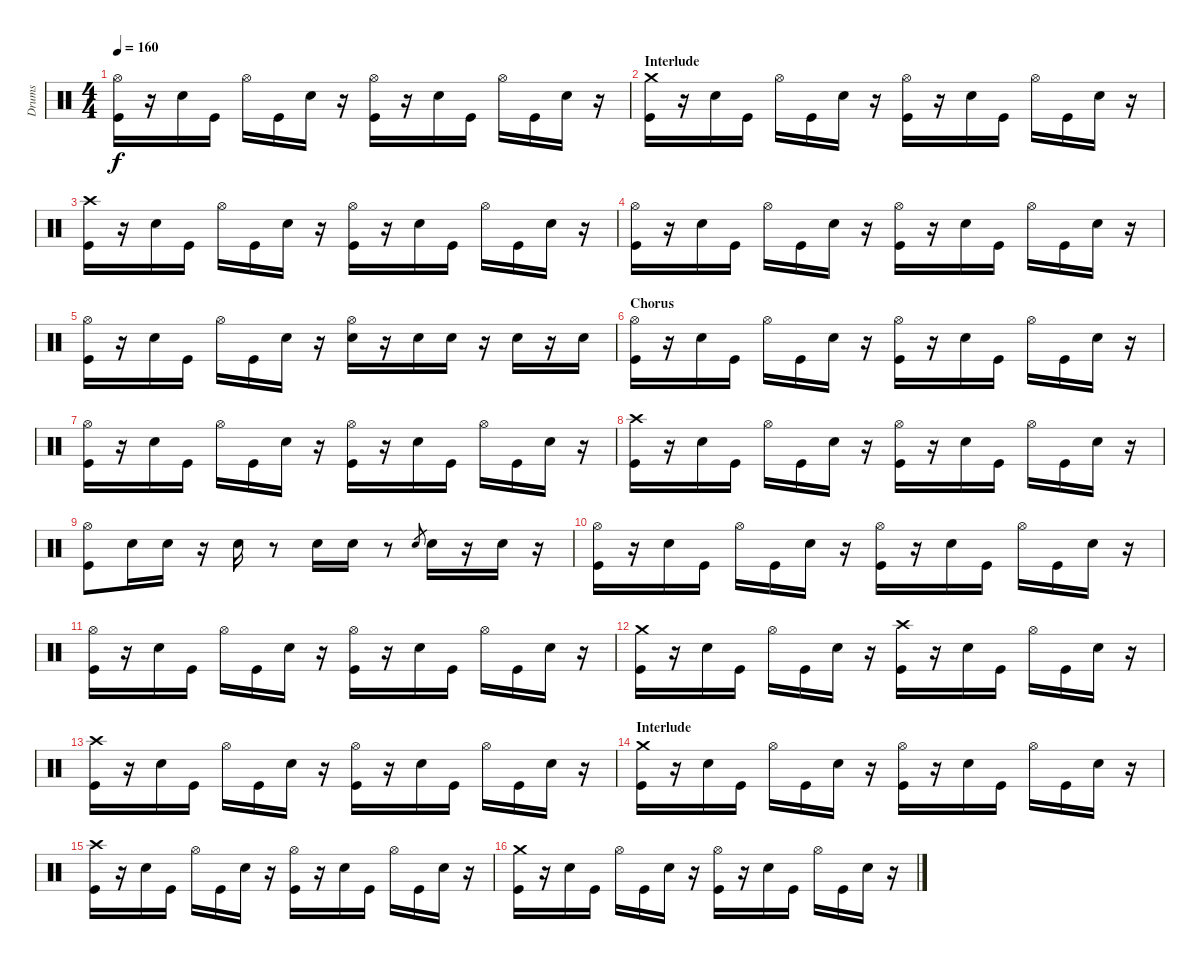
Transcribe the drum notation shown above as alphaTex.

\track ("Drums" "Drums") {instrument percussion}
\staff {score}
\articulation defaults
\ts (4 4)
\tempo 160
\clef neutral
\ks c
("Kick (hit)" "Hi-Hat (open)").16{dy f} r.16 "Snare (hit) 2".16 "Kick (hit)".16 "Hi-Hat (open)".16 "Kick (hit)".16 "Snare (hit) 2".16 r.16 ("Kick (hit)" "Hi-Hat (open)").16 r.16 "Snare (hit) 2".16 "Kick (hit)".16 "Hi-Hat (open)".16 "Kick (hit)".16 "Snare (hit) 2".16 r.16 |
\section ("" "Interlude")
("Kick (hit)" "Crash medium (hit)").16 r.16 "Snare (hit) 2".16 "Kick (hit)".16 "Hi-Hat (open)".16 "Kick (hit)".16 "Snare (hit) 2".16 r.16 ("Kick (hit)" "Hi-Hat (open)").16 r.16 "Snare (hit) 2".16 "Kick (hit)".16 "Hi-Hat (open)".16 "Kick (hit)".16 "Snare (hit) 2".16 r.16 |
("Kick (hit)" "Crash high (hit)").16 r.16 "Snare (hit) 2".16 "Kick (hit)".16 "Hi-Hat (open)".16 "Kick (hit)".16 "Snare (hit) 2".16 r.16 ("Kick (hit)" "Hi-Hat (open)").16 r.16 "Snare (hit) 2".16 "Kick (hit)".16 "Hi-Hat (open)".16 "Kick (hit)".16 "Snare (hit) 2".16 r.16 |
("Kick (hit)" "Hi-Hat (open)").16 r.16 "Snare (hit) 2".16 "Kick (hit)".16 "Hi-Hat (open)".16 "Kick (hit)".16 "Snare (hit) 2".16 r.16 ("Kick (hit)" "Hi-Hat (open)").16 r.16 "Snare (hit) 2".16 "Kick (hit)".16 "Hi-Hat (open)".16 "Kick (hit)".16 "Snare (hit) 2".16 r.16 |
("Kick (hit)" "Hi-Hat (open)").16 r.16 "Snare (hit) 2".16 "Kick (hit)".16 "Hi-Hat (open)".16 "Kick (hit)".16 "Snare (hit) 2".16 r.16 ("Snare (hit) 2" "Hi-Hat (open)").16 r.16 "Snare (hit) 2".16 "Snare (hit) 2".16 r.16 "Snare (hit) 2".16 r.16 "Snare (hit) 2".16 |
\section ("" "Chorus")
("Kick (hit)" "Hi-Hat (open)").16 r.16 "Snare (hit) 2".16 "Kick (hit)".16 "Hi-Hat (open)".16 "Kick (hit)".16 "Snare (hit) 2".16 r.16 ("Kick (hit)" "Hi-Hat (open)").16 r.16 "Snare (hit) 2".16 "Kick (hit)".16 "Hi-Hat (open)".16 "Kick (hit)".16 "Snare (hit) 2".16 r.16 |
("Kick (hit)" "Hi-Hat (open)").16 r.16 "Snare (hit) 2".16 "Kick (hit)".16 "Hi-Hat (open)".16 "Kick (hit)".16 "Snare (hit) 2".16 r.16 ("Kick (hit)" "Hi-Hat (open)").16 r.16 "Snare (hit) 2".16 "Kick (hit)".16 "Hi-Hat (open)".16 "Kick (hit)".16 "Snare (hit) 2".16 r.16 |
("Kick (hit)" "Crash high (hit)").16 r.16 "Snare (hit) 2".16 "Kick (hit)".16 "Hi-Hat (open)".16 "Kick (hit)".16 "Snare (hit) 2".16 r.16 ("Kick (hit)" "Hi-Hat (open)").16 r.16 "Snare (hit) 2".16 "Kick (hit)".16 "Hi-Hat (open)".16 "Kick (hit)".16 "Snare (hit) 2".16 r.16 |
("Kick (hit)" "Hi-Hat (open)").8 "Snare (hit) 2".16 "Snare (hit) 2".16 r.16 "Snare (hit) 2".16 r.8 "Snare (hit) 2".16 "Snare (hit) 2".16 r.8 "Snare (hit) 2".8{gr} "Snare (hit) 2".16 r.16 "Snare (hit) 2".16 r.16 |
("Kick (hit)" "Hi-Hat (open)").16 r.16 "Snare (hit) 2".16 "Kick (hit)".16 "Hi-Hat (open)".16 "Kick (hit)".16 "Snare (hit) 2".16 r.16 ("Kick (hit)" "Hi-Hat (open)").16 r.16 "Snare (hit) 2".16 "Kick (hit)".16 "Hi-Hat (open)".16 "Kick (hit)".16 "Snare (hit) 2".16 r.16 |
("Kick (hit)" "Hi-Hat (open)").16 r.16 "Snare (hit) 2".16 "Kick (hit)".16 "Hi-Hat (open)".16 "Kick (hit)".16 "Snare (hit) 2".16 r.16 ("Kick (hit)" "Hi-Hat (open)").16 r.16 "Snare (hit) 2".16 "Kick (hit)".16 "Hi-Hat (open)".16 "Kick (hit)".16 "Snare (hit) 2".16 r.16 |
("Kick (hit)" "Crash medium (hit)").16 r.16 "Snare (hit) 2".16 "Kick (hit)".16 "Hi-Hat (open)".16 "Kick (hit)".16 "Snare (hit) 2".16 r.16 ("Kick (hit)" "Crash high (hit)").16 r.16 "Snare (hit) 2".16 "Kick (hit)".16 "Hi-Hat (open)".16 "Kick (hit)".16 "Snare (hit) 2".16 r.16 |
("Kick (hit)" "Crash high (hit)").16 r.16 "Snare (hit) 2".16 "Kick (hit)".16 "Hi-Hat (open)".16 "Kick (hit)".16 "Snare (hit) 2".16 r.16 ("Kick (hit)" "Hi-Hat (open)").16 r.16 "Snare (hit) 2".16 "Kick (hit)".16 "Hi-Hat (open)".16 "Kick (hit)".16 "Snare (hit) 2".16 r.16 |
\section ("" "Interlude")
("Kick (hit)" "Crash medium (hit)").16 r.16 "Snare (hit) 2".16 "Kick (hit)".16 "Hi-Hat (open)".16 "Kick (hit)".16 "Snare (hit) 2".16 r.16 ("Kick (hit)" "Hi-Hat (open)").16 r.16 "Snare (hit) 2".16 "Kick (hit)".16 "Hi-Hat (open)".16 "Kick (hit)".16 "Snare (hit) 2".16 r.16 |
("Kick (hit)" "Crash high (hit)").16 r.16 "Snare (hit) 2".16 "Kick (hit)".16 "Hi-Hat (open)".16 "Kick (hit)".16 "Snare (hit) 2".16 r.16 ("Kick (hit)" "Hi-Hat (open)").16 r.16 "Snare (hit) 2".16 "Kick (hit)".16 "Hi-Hat (open)".16 "Kick (hit)".16 "Snare (hit) 2".16 r.16 |
("Kick (hit)" "Crash medium (hit)").16 r.16 "Snare (hit) 2".16 "Kick (hit)".16 "Hi-Hat (open)".16 "Kick (hit)".16 "Snare (hit) 2".16 r.16 ("Kick (hit)" "Hi-Hat (open)").16 r.16 "Snare (hit) 2".16 "Kick (hit)".16 "Hi-Hat (open)".16 "Kick (hit)".16 "Snare (hit) 2".16 r.16
